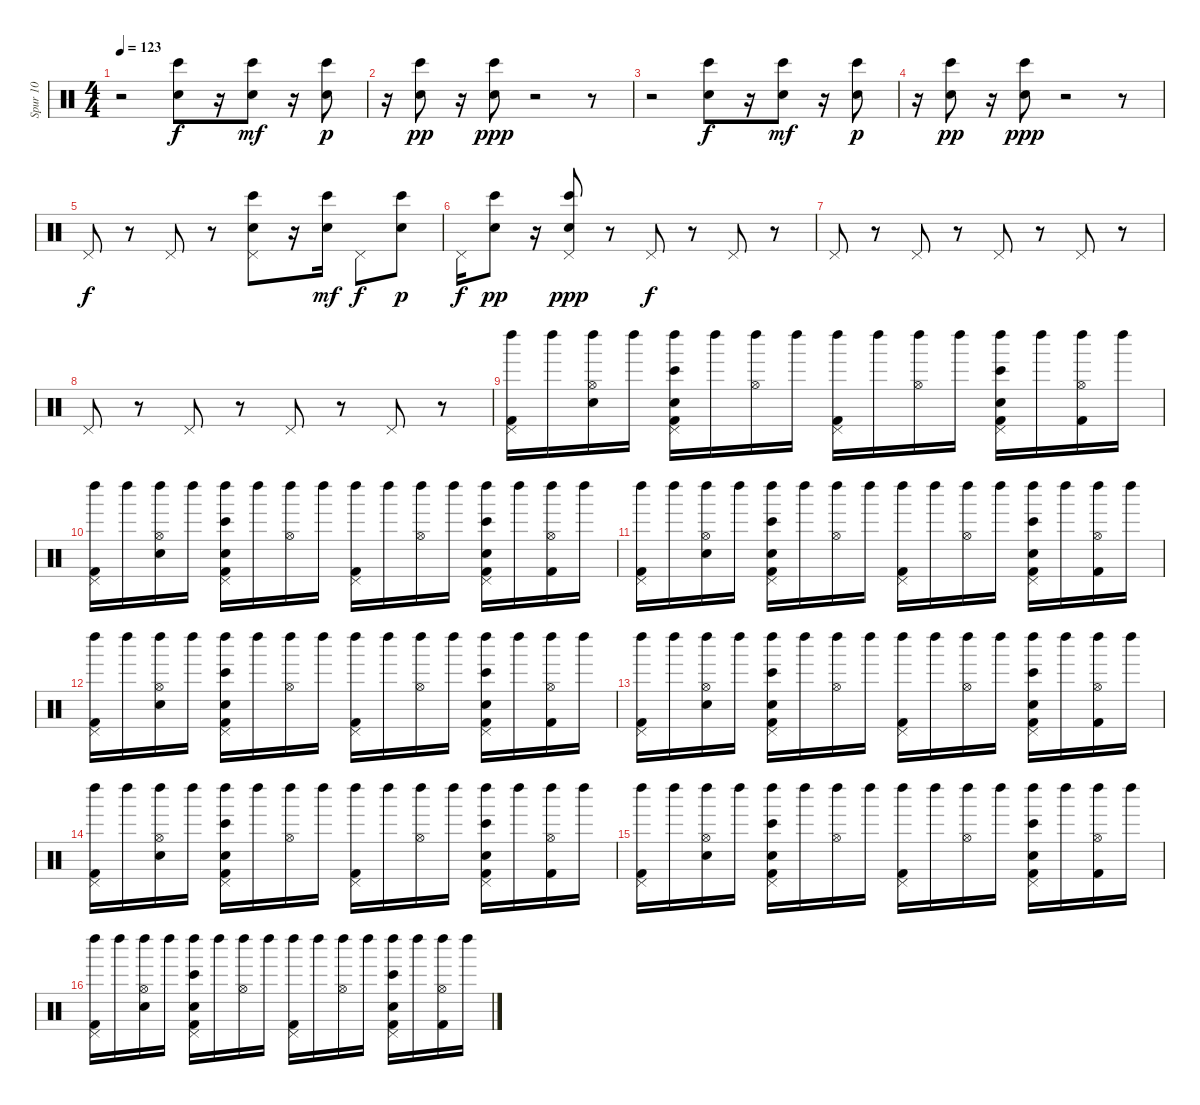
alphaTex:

\track ("Spur 10" "Spur 10") {instrument percussion}
\staff {score}
\articulation defaults
\ts (4 4)
\tempo 123
\clef neutral
\ks c
r.2{dy ppp} ("Hand Clap (hit)" "Bongo High (hit)").8{dy f} r.16 ("Hand Clap (hit)" "Bongo High (hit)").8{dy mf} r.16 ("Hand Clap (hit)" "Bongo High (hit)").8{dy p} |
r.16 ("Hand Clap (hit)" "Bongo High (hit)").8{dy pp} r.16 ("Hand Clap (hit)" "Bongo High (hit)").8{dy ppp} r.2 r.8 |
r.2 ("Hand Clap (hit)" "Bongo High (hit)").8{dy f} r.16 ("Hand Clap (hit)" "Bongo High (hit)").8{dy mf} r.16 ("Hand Clap (hit)" "Bongo High (hit)").8{dy p} |
r.16 ("Hand Clap (hit)" "Bongo High (hit)").8{dy pp} r.16 ("Hand Clap (hit)" "Bongo High (hit)").8{dy ppp} r.2 r.8 |
"Pedal Hi-Hat (hit)".8{dy f} r.8 "Pedal Hi-Hat (hit)".8 r.8 ("Hand Clap (hit)" "Bongo High (hit)" "Pedal Hi-Hat (hit)").8 r.16 ("Hand Clap (hit)" "Bongo High (hit)").16{dy mf} "Pedal Hi-Hat (hit)".8{dy f} ("Hand Clap (hit)" "Bongo High (hit)").8{dy p} |
"Pedal Hi-Hat (hit)".16{dy f} ("Hand Clap (hit)" "Bongo High (hit)").8{dy pp} r.16 ("Hand Clap (hit)" "Bongo High (hit)" "Pedal Hi-Hat (hit)").8{dy ppp} r.8 "Pedal Hi-Hat (hit)".8{dy f} r.8 "Pedal Hi-Hat (hit)".8 r.8 |
"Pedal Hi-Hat (hit)".8 r.8 "Pedal Hi-Hat (hit)".8 r.8 "Pedal Hi-Hat (hit)".8 r.8 "Pedal Hi-Hat (hit)".8 r.8 |
"Pedal Hi-Hat (hit)".8 r.8 "Pedal Hi-Hat (hit)".8 r.8 "Pedal Hi-Hat (hit)".8 r.8 "Pedal Hi-Hat (hit)".8 r.8 |
("Kick (hit) 2" "Left Maraca (hit)" "Pedal Hi-Hat (hit)").16 "Left Maraca (hit)".16 ("Electric Snare (hit)" "Left Maraca (hit)" "Hi-Hat (open)").16 "Left Maraca (hit)".16 ("Kick (hit) 2" "Bongo High (hit)" "Snare (hit) 2" "Left Maraca (hit)" "Pedal Hi-Hat (hit)").16 "Left Maraca (hit)".16 ("Left Maraca (hit)" "Hi-Hat (open)").16 "Left Maraca (hit)".16 ("Left Maraca (hit)" "Kick (hit) 2" "Pedal Hi-Hat (hit)").16 "Left Maraca (hit)".16 ("Left Maraca (hit)" "Hi-Hat (open)").16 "Left Maraca (hit)".16 ("Snare (hit) 2" "Bongo High (hit)" "Kick (hit) 2" "Left Maraca (hit)" "Pedal Hi-Hat (hit)").16 "Left Maraca (hit)".16 ("Kick (hit) 2" "Left Maraca (hit)" "Hi-Hat (open)").16 "Left Maraca (hit)".16 |
("Kick (hit) 2" "Left Maraca (hit)" "Pedal Hi-Hat (hit)").16 "Left Maraca (hit)".16 ("Left Maraca (hit)" "Electric Snare (hit)" "Hi-Hat (open)").16 "Left Maraca (hit)".16 ("Kick (hit) 2" "Snare (hit) 2" "Left Maraca (hit)" "Bongo High (hit)" "Pedal Hi-Hat (hit)").16 "Left Maraca (hit)".16 ("Left Maraca (hit)" "Hi-Hat (open)").16 "Left Maraca (hit)".16 ("Left Maraca (hit)" "Kick (hit) 2" "Pedal Hi-Hat (hit)").16 "Left Maraca (hit)".16 ("Left Maraca (hit)" "Hi-Hat (open)").16 "Left Maraca (hit)".16 ("Kick (hit) 2" "Snare (hit) 2" "Left Maraca (hit)" "Bongo High (hit)" "Pedal Hi-Hat (hit)").16 "Left Maraca (hit)".16 ("Left Maraca (hit)" "Kick (hit) 2" "Hi-Hat (open)").16 "Left Maraca (hit)".16 |
("Kick (hit) 2" "Left Maraca (hit)" "Pedal Hi-Hat (hit)").16 "Left Maraca (hit)".16 ("Left Maraca (hit)" "Electric Snare (hit)" "Hi-Hat (open)").16 "Left Maraca (hit)".16 ("Snare (hit) 2" "Kick (hit) 2" "Left Maraca (hit)" "Bongo High (hit)" "Pedal Hi-Hat (hit)").16 "Left Maraca (hit)".16 ("Left Maraca (hit)" "Hi-Hat (open)").16 "Left Maraca (hit)".16 ("Left Maraca (hit)" "Kick (hit) 2" "Pedal Hi-Hat (hit)").16 "Left Maraca (hit)".16 ("Left Maraca (hit)" "Hi-Hat (open)").16 "Left Maraca (hit)".16 ("Bongo High (hit)" "Snare (hit) 2" "Kick (hit) 2" "Left Maraca (hit)" "Pedal Hi-Hat (hit)").16 "Left Maraca (hit)".16 ("Kick (hit) 2" "Left Maraca (hit)" "Hi-Hat (open)").16 "Left Maraca (hit)".16 |
("Left Maraca (hit)" "Kick (hit) 2" "Pedal Hi-Hat (hit)").16 "Left Maraca (hit)".16 ("Left Maraca (hit)" "Electric Snare (hit)" "Hi-Hat (open)").16 "Left Maraca (hit)".16 ("Left Maraca (hit)" "Bongo High (hit)" "Snare (hit) 2" "Kick (hit) 2" "Pedal Hi-Hat (hit)").16 "Left Maraca (hit)".16 ("Left Maraca (hit)" "Hi-Hat (open)").16 "Left Maraca (hit)".16 ("Left Maraca (hit)" "Kick (hit) 2" "Pedal Hi-Hat (hit)").16 "Left Maraca (hit)".16 ("Left Maraca (hit)" "Hi-Hat (open)").16 "Left Maraca (hit)".16 ("Kick (hit) 2" "Snare (hit) 2" "Left Maraca (hit)" "Bongo High (hit)" "Pedal Hi-Hat (hit)").16 "Left Maraca (hit)".16 ("Kick (hit) 2" "Left Maraca (hit)" "Hi-Hat (open)").16 "Left Maraca (hit)".16 |
("Kick (hit) 2" "Left Maraca (hit)" "Pedal Hi-Hat (hit)").16 "Left Maraca (hit)".16 ("Left Maraca (hit)" "Electric Snare (hit)" "Hi-Hat (open)").16 "Left Maraca (hit)".16 ("Snare (hit) 2" "Kick (hit) 2" "Left Maraca (hit)" "Bongo High (hit)" "Pedal Hi-Hat (hit)").16 "Left Maraca (hit)".16 ("Left Maraca (hit)" "Hi-Hat (open)").16 "Left Maraca (hit)".16 ("Left Maraca (hit)" "Kick (hit) 2" "Pedal Hi-Hat (hit)").16 "Left Maraca (hit)".16 ("Left Maraca (hit)" "Hi-Hat (open)").16 "Left Maraca (hit)".16 ("Snare (hit) 2" "Left Maraca (hit)" "Kick (hit) 2" "Bongo High (hit)" "Pedal Hi-Hat (hit)").16 "Left Maraca (hit)".16 ("Left Maraca (hit)" "Kick (hit) 2" "Hi-Hat (open)").16 "Left Maraca (hit)".16 |
("Kick (hit) 2" "Left Maraca (hit)" "Pedal Hi-Hat (hit)").16 "Left Maraca (hit)".16 ("Left Maraca (hit)" "Electric Snare (hit)" "Hi-Hat (open)").16 "Left Maraca (hit)".16 ("Bongo High (hit)" "Snare (hit) 2" "Left Maraca (hit)" "Kick (hit) 2" "Pedal Hi-Hat (hit)").16 "Left Maraca (hit)".16 ("Left Maraca (hit)" "Hi-Hat (open)").16 "Left Maraca (hit)".16 ("Kick (hit) 2" "Left Maraca (hit)" "Pedal Hi-Hat (hit)").16 "Left Maraca (hit)".16 ("Left Maraca (hit)" "Hi-Hat (open)").16 "Left Maraca (hit)".16 ("Kick (hit) 2" "Left Maraca (hit)" "Snare (hit) 2" "Bongo High (hit)" "Pedal Hi-Hat (hit)").16 "Left Maraca (hit)".16 ("Kick (hit) 2" "Left Maraca (hit)" "Hi-Hat (open)").16 "Left Maraca (hit)".16 |
("Kick (hit) 2" "Left Maraca (hit)" "Pedal Hi-Hat (hit)").16 "Left Maraca (hit)".16 ("Left Maraca (hit)" "Electric Snare (hit)" "Hi-Hat (open)").16 "Left Maraca (hit)".16 ("Kick (hit) 2" "Snare (hit) 2" "Left Maraca (hit)" "Bongo High (hit)" "Pedal Hi-Hat (hit)").16 "Left Maraca (hit)".16 ("Left Maraca (hit)" "Hi-Hat (open)").16 "Left Maraca (hit)".16 ("Left Maraca (hit)" "Kick (hit) 2" "Pedal Hi-Hat (hit)").16 "Left Maraca (hit)".16 ("Left Maraca (hit)" "Hi-Hat (open)").16 "Left Maraca (hit)".16 ("Snare (hit) 2" "Kick (hit) 2" "Bongo High (hit)" "Left Maraca (hit)" "Pedal Hi-Hat (hit)").16 "Left Maraca (hit)".16 ("Left Maraca (hit)" "Kick (hit) 2" "Hi-Hat (open)").16 "Left Maraca (hit)".16 |
("Left Maraca (hit)" "Kick (hit) 2" "Pedal Hi-Hat (hit)").16 "Left Maraca (hit)".16 ("Electric Snare (hit)" "Left Maraca (hit)" "Hi-Hat (open)").16 "Left Maraca (hit)".16 ("Left Maraca (hit)" "Kick (hit) 2" "Snare (hit) 2" "Bongo High (hit)" "Pedal Hi-Hat (hit)").16 "Left Maraca (hit)".16 ("Left Maraca (hit)" "Hi-Hat (open)").16 "Left Maraca (hit)".16 ("Kick (hit) 2" "Left Maraca (hit)" "Pedal Hi-Hat (hit)").16 "Left Maraca (hit)".16 ("Left Maraca (hit)" "Hi-Hat (open)").16 "Left Maraca (hit)".16 ("Kick (hit) 2" "Snare (hit) 2" "Left Maraca (hit)" "Bongo High (hit)" "Pedal Hi-Hat (hit)").16 "Left Maraca (hit)".16 ("Left Maraca (hit)" "Kick (hit) 2" "Hi-Hat (open)").16 "Left Maraca (hit)".16
